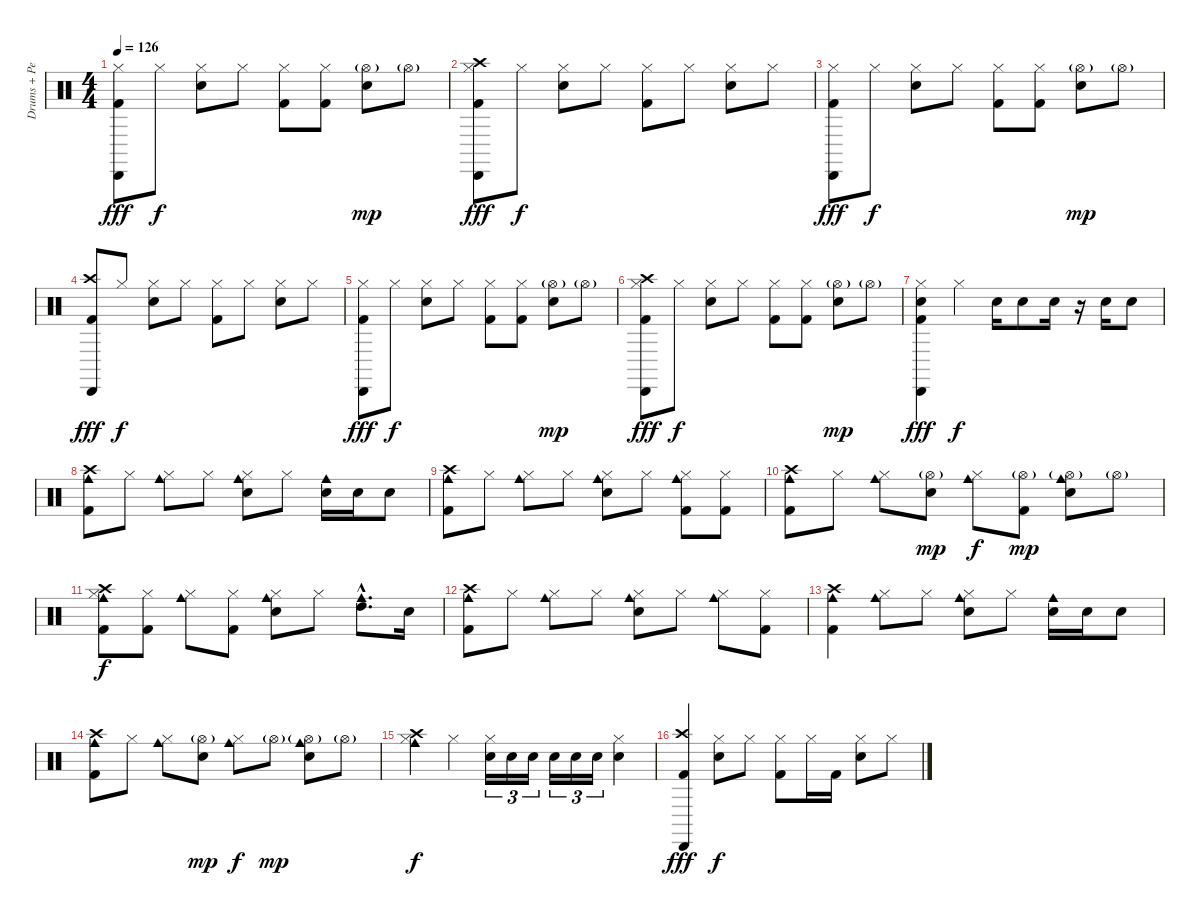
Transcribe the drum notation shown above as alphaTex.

\track ("Drums + Percussions" "Drums + Pe") {instrument percussion}
\staff {score}
\articulation defaults
\ts (4 4)
\tempo 126
\clef neutral
\ks c
("Hi-Hat (closed)" "Cabasa (hit)" "Kick (hit) 2").8{dy fff} "Hi-Hat (closed)".8{dy f} ("Hi-Hat (closed)" "Electric Snare (hit)").8 "Hi-Hat (closed)".8 ("Hi-Hat (closed)" "Kick (hit) 2").8 ("Hi-Hat (closed)" "Kick (hit) 2").8 ("Hi-Hat (open)"{g} "Electric Snare (hit)").8{dy mp} "Hi-Hat (open)"{g}.8 |
("Crash high (hit)" "Hi-Hat (closed)" "Cabasa (hit)" "Kick (hit) 2").8{dy fff} "Hi-Hat (closed)".8{dy f} ("Hi-Hat (closed)" "Electric Snare (hit)").8 "Hi-Hat (closed)".8 ("Hi-Hat (closed)" "Kick (hit) 2").8 "Hi-Hat (closed)".8 ("Hi-Hat (closed)" "Electric Snare (hit)").8 "Hi-Hat (closed)".8 |
("Hi-Hat (closed)" "Cabasa (hit)" "Kick (hit) 2").8{dy fff} "Hi-Hat (closed)".8{dy f} ("Hi-Hat (closed)" "Electric Snare (hit)").8 "Hi-Hat (closed)".8 ("Hi-Hat (closed)" "Kick (hit) 2").8 ("Hi-Hat (closed)" "Kick (hit) 2").8 ("Hi-Hat (open)"{g} "Electric Snare (hit)").8{dy mp} "Hi-Hat (open)"{g}.8 |
("Crash high (hit)" "Cabasa (hit)" "Kick (hit) 2").8{dy fff} "Hi-Hat (closed)".8{dy f} ("Hi-Hat (closed)" "Electric Snare (hit)").8 "Hi-Hat (closed)".8 ("Hi-Hat (closed)" "Kick (hit) 2").8 "Hi-Hat (closed)".8 ("Hi-Hat (closed)" "Electric Snare (hit)").8 "Hi-Hat (closed)".8 |
("Hi-Hat (closed)" "Cabasa (hit)" "Kick (hit) 2").8{dy fff} "Hi-Hat (closed)".8{dy f} ("Hi-Hat (closed)" "Electric Snare (hit)").8 "Hi-Hat (closed)".8 ("Hi-Hat (closed)" "Kick (hit) 2").8 ("Hi-Hat (closed)" "Kick (hit) 2").8 ("Hi-Hat (open)"{g} "Electric Snare (hit)").8{dy mp} "Hi-Hat (open)"{g}.8 |
("Hi-Hat (closed)" "Crash high (hit)" "Cabasa (hit)" "Kick (hit) 2").8{dy fff} "Hi-Hat (closed)".8{dy f} ("Hi-Hat (closed)" "Electric Snare (hit)").8 "Hi-Hat (closed)".8 ("Hi-Hat (closed)" "Kick (hit) 2").8 ("Hi-Hat (closed)" "Kick (hit) 2").8 ("Hi-Hat (open)"{g} "Electric Snare (hit)").8{dy mp} "Hi-Hat (open)"{g}.8 |
("Hi-Hat (closed)" "Cabasa (hit)" "Electric Snare (hit)" "Kick (hit) 2").4{dy fff} "Hi-Hat (closed)".4{dy f} "Electric Snare (hit)".16 "Electric Snare (hit)".8 "Electric Snare (hit)".16 r.16 "Electric Snare (hit)".16 "Electric Snare (hit)".8 |
("Crash high (hit)" "Cowbell medium (hit)" "Kick (hit) 2").8 "Hi-Hat (closed)".8 ("Hi-Hat (closed)" "Cowbell medium (hit)").8 "Hi-Hat (closed)".8 ("Hi-Hat (closed)" "Cowbell medium (hit)" "Electric Snare (hit)").8 "Hi-Hat (closed)".8 ("Cowbell medium (hit)" "Electric Snare (hit)").16 "Electric Snare (hit)".16 "Electric Snare (hit)".8 |
("Crash high (hit)" "Cowbell medium (hit)" "Kick (hit) 2").8 "Hi-Hat (closed)".8 ("Hi-Hat (closed)" "Cowbell medium (hit)").8 "Hi-Hat (closed)".8 ("Hi-Hat (closed)" "Cowbell medium (hit)" "Electric Snare (hit)").8 "Hi-Hat (closed)".8 ("Hi-Hat (closed)" "Cowbell medium (hit)" "Kick (hit) 2").8 ("Hi-Hat (closed)" "Kick (hit) 2").8 |
("Crash high (hit)" "Cowbell medium (hit)" "Kick (hit) 2").8 "Hi-Hat (closed)".8 ("Hi-Hat (closed)" "Cowbell medium (hit)").8 ("Hi-Hat (open)"{g} "Electric Snare (hit)").8{dy mp} ("Hi-Hat (closed)" "Cowbell medium (hit)").8{dy f} ("Hi-Hat (open)"{g} "Kick (hit) 2").8{dy mp} ("Hi-Hat (open)"{g} "Cowbell medium (hit)" "Electric Snare (hit)").8 "Hi-Hat (open)"{g}.8 |
("Hi-Hat (closed)" "Cowbell medium (hit)" "Crash high (hit)" "Kick (hit) 2").8{dy f} ("Hi-Hat (closed)" "Kick (hit) 2").8 ("Hi-Hat (closed)" "Cowbell medium (hit)").8 ("Hi-Hat (closed)" "Kick (hit) 2").8 ("Hi-Hat (closed)" "Cowbell medium (hit)" "Electric Snare (hit)").8 "Hi-Hat (closed)".8 ("Cowbell medium (hit)"{hac} "High Tom (hit)"{hac}).8{d} "Electric Snare (hit)".16 |
("Crash high (hit)" "Cowbell medium (hit)" "Kick (hit) 2").8 "Hi-Hat (closed)".8 ("Hi-Hat (closed)" "Cowbell medium (hit)").8 "Hi-Hat (closed)".8 ("Hi-Hat (closed)" "Cowbell medium (hit)" "Electric Snare (hit)").8 "Hi-Hat (closed)".8 ("Hi-Hat (closed)" "Cowbell medium (hit)").8 ("Hi-Hat (closed)" "Kick (hit) 2").8 |
("Crash high (hit)" "Cowbell medium (hit)" "Kick (hit) 2").4 ("Hi-Hat (closed)" "Cowbell medium (hit)").8 "Hi-Hat (closed)".8 ("Hi-Hat (closed)" "Cowbell medium (hit)" "Electric Snare (hit)").8 "Hi-Hat (closed)".8 ("Cowbell medium (hit)" "Electric Snare (hit)").16 "Electric Snare (hit)".16 "Electric Snare (hit)".8 |
("Crash high (hit)" "Cowbell medium (hit)" "Kick (hit) 2").8 "Hi-Hat (closed)".8 ("Hi-Hat (closed)" "Cowbell medium (hit)").8 ("Hi-Hat (open)"{g} "Electric Snare (hit)").8{dy mp} ("Hi-Hat (closed)" "Cowbell medium (hit)").8{dy f} "Hi-Hat (open)"{g}.8{dy mp} ("Hi-Hat (open)"{g} "Cowbell medium (hit)" "Electric Snare (hit)").8 "Hi-Hat (open)"{g}.8 |
("Hi-Hat (closed)" "Cowbell medium (hit)" "Crash high (hit)").4{dy f} "Hi-Hat (closed)".4 ("Hi-Hat (closed)" "Electric Snare (hit)").16{tu (3 2)} "Electric Snare (hit)".16{tu (3 2)} "Electric Snare (hit)".16{tu (3 2)} "Electric Snare (hit)".16{tu (3 2)} "Electric Snare (hit)".16{tu (3 2)} "Electric Snare (hit)".16{tu (3 2)} ("Hi-Hat (closed)" "Electric Snare (hit)").4 |
("Crash high (hit)" "Cabasa (hit)" "Kick (hit) 2").4{dy fff} ("Hi-Hat (closed)" "Electric Snare (hit)").8{dy f} "Hi-Hat (closed)".8 ("Hi-Hat (closed)" "Kick (hit) 2").8 "Hi-Hat (closed)".16 "Kick (hit) 2".16 ("Hi-Hat (closed)" "Electric Snare (hit)").8 "Hi-Hat (closed)".8
